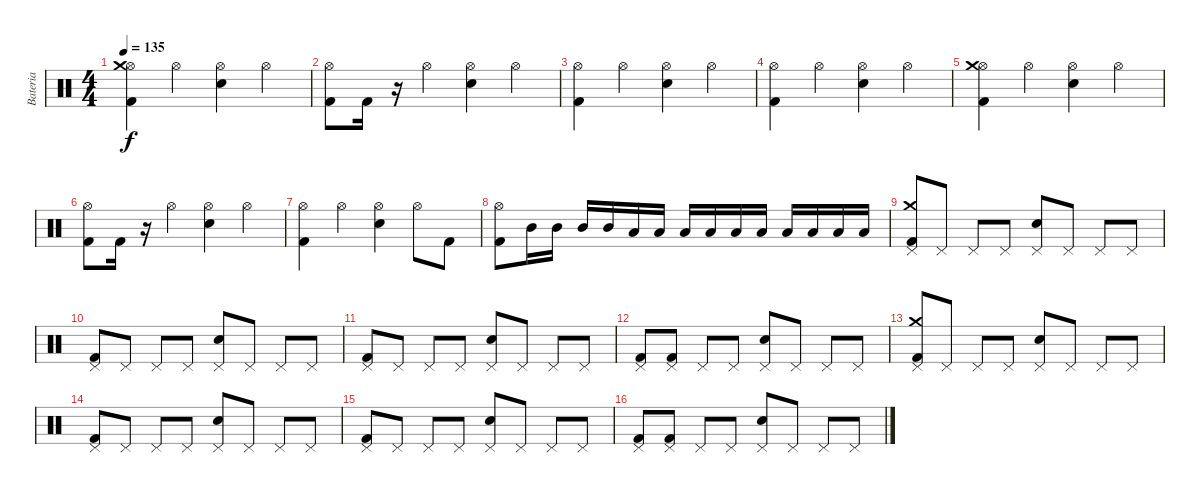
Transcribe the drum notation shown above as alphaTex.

\track ("Bateria" "Bateria") {instrument percussion}
\staff {score}
\articulation defaults
\ts (4 4)
\tempo 135
\clef neutral
\ks c
("Kick (hit) 2" "Hi-Hat (open)" "Crash medium (hit)").4{dy f} "Hi-Hat (open)".4 ("Electric Snare (hit)" "Hi-Hat (open)").4 "Hi-Hat (open)".4 |
("Kick (hit) 2" "Hi-Hat (open)").8 "Kick (hit) 2".16 r.16 "Hi-Hat (open)".4 ("Electric Snare (hit)" "Hi-Hat (open)").4 "Hi-Hat (open)".4 |
("Kick (hit) 2" "Hi-Hat (open)").4 "Hi-Hat (open)".4 ("Electric Snare (hit)" "Hi-Hat (open)").4 "Hi-Hat (open)".4 |
("Kick (hit) 2" "Hi-Hat (open)").4 "Hi-Hat (open)".4 ("Electric Snare (hit)" "Hi-Hat (open)").4 "Hi-Hat (open)".4 |
("Kick (hit) 2" "Hi-Hat (open)" "Crash medium (hit)").4 "Hi-Hat (open)".4 ("Electric Snare (hit)" "Hi-Hat (open)").4 "Hi-Hat (open)".4 |
("Kick (hit) 2" "Hi-Hat (open)").8 "Kick (hit) 2".16 r.16 "Hi-Hat (open)".4 ("Electric Snare (hit)" "Hi-Hat (open)").4 "Hi-Hat (open)".4 |
("Kick (hit) 2" "Hi-Hat (open)").4 "Hi-Hat (open)".4 ("Electric Snare (hit)" "Hi-Hat (open)").4 "Hi-Hat (open)".8 "Kick (hit) 2".8 |
("Kick (hit) 2" "Hi-Hat (open)").8 "Mid Tom (hit)".16 "Mid Tom (hit)".16 "Mid Tom (hit)".16 "Mid Tom (hit)".16 "Low Tom (hit)".16 "Low Tom (hit)".16 "Low Tom (hit)".16 "Low Tom (hit)".16 "Low Floor Tom (hit)".16 "Low Floor Tom (hit)".16 "Low Floor Tom (hit)".16 "Low Floor Tom (hit)".16 "Low Floor Tom (hit)".16 "Low Floor Tom (hit)".16 |
("Kick (hit) 2" "Pedal Hi-Hat (hit)" "Crash medium (hit)").8 "Pedal Hi-Hat (hit)".8 "Pedal Hi-Hat (hit)".8 "Pedal Hi-Hat (hit)".8 ("Electric Snare (hit)" "Pedal Hi-Hat (hit)").8 "Pedal Hi-Hat (hit)".8 "Pedal Hi-Hat (hit)".8 "Pedal Hi-Hat (hit)".8 |
("Kick (hit) 2" "Pedal Hi-Hat (hit)").8 "Pedal Hi-Hat (hit)".8 "Pedal Hi-Hat (hit)".8 "Pedal Hi-Hat (hit)".8 ("Electric Snare (hit)" "Pedal Hi-Hat (hit)").8 "Pedal Hi-Hat (hit)".8 "Pedal Hi-Hat (hit)".8 "Pedal Hi-Hat (hit)".8 |
("Kick (hit) 2" "Pedal Hi-Hat (hit)").8 "Pedal Hi-Hat (hit)".8 "Pedal Hi-Hat (hit)".8 "Pedal Hi-Hat (hit)".8 ("Electric Snare (hit)" "Pedal Hi-Hat (hit)").8 "Pedal Hi-Hat (hit)".8 "Pedal Hi-Hat (hit)".8 "Pedal Hi-Hat (hit)".8 |
("Kick (hit) 2" "Pedal Hi-Hat (hit)").8 ("Kick (hit) 2" "Pedal Hi-Hat (hit)").8 "Pedal Hi-Hat (hit)".8 "Pedal Hi-Hat (hit)".8 ("Electric Snare (hit)" "Pedal Hi-Hat (hit)").8 "Pedal Hi-Hat (hit)".8 "Pedal Hi-Hat (hit)".8 "Pedal Hi-Hat (hit)".8 |
("Kick (hit) 2" "Pedal Hi-Hat (hit)" "Crash medium (hit)").8 "Pedal Hi-Hat (hit)".8 "Pedal Hi-Hat (hit)".8 "Pedal Hi-Hat (hit)".8 ("Electric Snare (hit)" "Pedal Hi-Hat (hit)").8 "Pedal Hi-Hat (hit)".8 "Pedal Hi-Hat (hit)".8 "Pedal Hi-Hat (hit)".8 |
("Kick (hit) 2" "Pedal Hi-Hat (hit)").8 "Pedal Hi-Hat (hit)".8 "Pedal Hi-Hat (hit)".8 "Pedal Hi-Hat (hit)".8 ("Electric Snare (hit)" "Pedal Hi-Hat (hit)").8 "Pedal Hi-Hat (hit)".8 "Pedal Hi-Hat (hit)".8 "Pedal Hi-Hat (hit)".8 |
("Kick (hit) 2" "Pedal Hi-Hat (hit)").8 "Pedal Hi-Hat (hit)".8 "Pedal Hi-Hat (hit)".8 "Pedal Hi-Hat (hit)".8 ("Electric Snare (hit)" "Pedal Hi-Hat (hit)").8 "Pedal Hi-Hat (hit)".8 "Pedal Hi-Hat (hit)".8 "Pedal Hi-Hat (hit)".8 |
("Kick (hit) 2" "Pedal Hi-Hat (hit)").8 ("Kick (hit) 2" "Pedal Hi-Hat (hit)").8 "Pedal Hi-Hat (hit)".8 "Pedal Hi-Hat (hit)".8 ("Electric Snare (hit)" "Pedal Hi-Hat (hit)").8 "Pedal Hi-Hat (hit)".8 "Pedal Hi-Hat (hit)".8 "Pedal Hi-Hat (hit)".8
